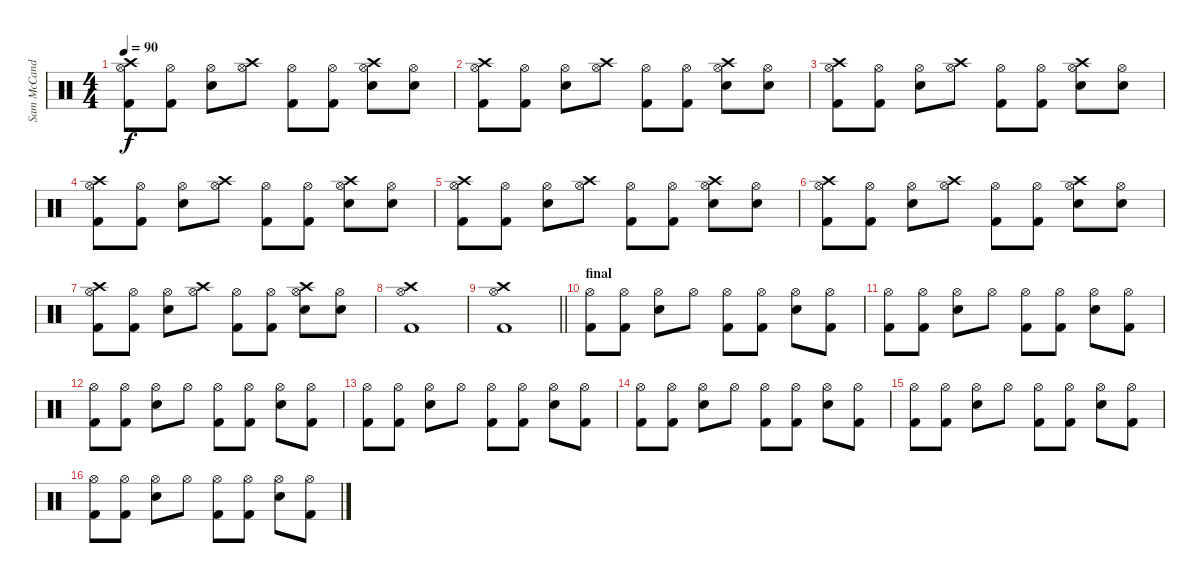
\track ("Sam McCandless" "Sam McCand") {instrument percussion}
\staff {score}
\articulation defaults
\ts (4 4)
\tempo 90
\clef neutral
\ks c
("Crash high (hit)" "Hi-Hat (open)" "Kick (hit) 2").8{dy f} ("Hi-Hat (open)" "Kick (hit) 2").8 ("Hi-Hat (open)" "Electric Snare (hit)").8 ("Crash high (hit)" "Hi-Hat (open)").8 ("Hi-Hat (open)" "Kick (hit) 2").8 ("Hi-Hat (open)" "Kick (hit) 2").8 ("Crash high (hit)" "Hi-Hat (open)" "Electric Snare (hit)").8 ("Hi-Hat (open)" "Electric Snare (hit)").8 |
("Crash high (hit)" "Hi-Hat (open)" "Kick (hit) 2").8 ("Hi-Hat (open)" "Kick (hit) 2").8 ("Hi-Hat (open)" "Electric Snare (hit)").8 ("Crash high (hit)" "Hi-Hat (open)").8 ("Hi-Hat (open)" "Kick (hit) 2").8 ("Hi-Hat (open)" "Kick (hit) 2").8 ("Crash high (hit)" "Hi-Hat (open)" "Electric Snare (hit)").8 ("Hi-Hat (open)" "Electric Snare (hit)").8 |
("Crash high (hit)" "Hi-Hat (open)" "Kick (hit) 2").8 ("Hi-Hat (open)" "Kick (hit) 2").8 ("Hi-Hat (open)" "Electric Snare (hit)").8 ("Crash high (hit)" "Hi-Hat (open)").8 ("Hi-Hat (open)" "Kick (hit) 2").8 ("Hi-Hat (open)" "Kick (hit) 2").8 ("Crash high (hit)" "Hi-Hat (open)" "Electric Snare (hit)").8 ("Hi-Hat (open)" "Electric Snare (hit)").8 |
("Crash high (hit)" "Hi-Hat (open)" "Kick (hit) 2").8 ("Hi-Hat (open)" "Kick (hit) 2").8 ("Hi-Hat (open)" "Electric Snare (hit)").8 ("Crash high (hit)" "Hi-Hat (open)").8 ("Hi-Hat (open)" "Kick (hit) 2").8 ("Hi-Hat (open)" "Kick (hit) 2").8 ("Crash high (hit)" "Hi-Hat (open)" "Electric Snare (hit)").8 ("Hi-Hat (open)" "Electric Snare (hit)").8 |
("Crash high (hit)" "Hi-Hat (open)" "Kick (hit) 2").8 ("Hi-Hat (open)" "Kick (hit) 2").8 ("Hi-Hat (open)" "Electric Snare (hit)").8 ("Crash high (hit)" "Hi-Hat (open)").8 ("Hi-Hat (open)" "Kick (hit) 2").8 ("Hi-Hat (open)" "Kick (hit) 2").8 ("Crash high (hit)" "Hi-Hat (open)" "Electric Snare (hit)").8 ("Hi-Hat (open)" "Electric Snare (hit)").8 |
("Crash high (hit)" "Hi-Hat (open)" "Kick (hit) 2").8 ("Hi-Hat (open)" "Kick (hit) 2").8 ("Hi-Hat (open)" "Electric Snare (hit)").8 ("Crash high (hit)" "Hi-Hat (open)").8 ("Hi-Hat (open)" "Kick (hit) 2").8 ("Hi-Hat (open)" "Kick (hit) 2").8 ("Crash high (hit)" "Hi-Hat (open)" "Electric Snare (hit)").8 ("Hi-Hat (open)" "Electric Snare (hit)").8 |
("Crash high (hit)" "Hi-Hat (open)" "Kick (hit) 2").8 ("Hi-Hat (open)" "Kick (hit) 2").8 ("Hi-Hat (open)" "Electric Snare (hit)").8 ("Crash high (hit)" "Hi-Hat (open)").8 ("Hi-Hat (open)" "Kick (hit) 2").8 ("Hi-Hat (open)" "Kick (hit) 2").8 ("Crash high (hit)" "Hi-Hat (open)" "Electric Snare (hit)").8 ("Hi-Hat (open)" "Electric Snare (hit)").8 |
("Crash high (hit)" "Hi-Hat (open)" "Kick (hit) 2").1 |
\barLineRight lightlight
("Crash high (hit)" "Hi-Hat (open)" "Kick (hit) 2").1 |
\section ("" "final")
("Hi-Hat (open)" "Kick (hit) 2").8 ("Hi-Hat (open)" "Kick (hit) 2").8 ("Hi-Hat (open)" "Electric Snare (hit)").8 "Hi-Hat (open)".8 ("Hi-Hat (open)" "Kick (hit) 2").8 ("Hi-Hat (open)" "Kick (hit) 2").8 ("Hi-Hat (open)" "Electric Snare (hit)").8 ("Hi-Hat (open)" "Kick (hit) 2").8 |
("Hi-Hat (open)" "Kick (hit) 2").8 ("Hi-Hat (open)" "Kick (hit) 2").8 ("Hi-Hat (open)" "Electric Snare (hit)").8 "Hi-Hat (open)".8 ("Hi-Hat (open)" "Kick (hit) 2").8 ("Hi-Hat (open)" "Kick (hit) 2").8 ("Hi-Hat (open)" "Electric Snare (hit)").8 ("Hi-Hat (open)" "Kick (hit) 2").8 |
("Hi-Hat (open)" "Kick (hit) 2").8 ("Hi-Hat (open)" "Kick (hit) 2").8 ("Hi-Hat (open)" "Electric Snare (hit)").8 "Hi-Hat (open)".8 ("Hi-Hat (open)" "Kick (hit) 2").8 ("Hi-Hat (open)" "Kick (hit) 2").8 ("Hi-Hat (open)" "Electric Snare (hit)").8 ("Hi-Hat (open)" "Kick (hit) 2").8 |
("Hi-Hat (open)" "Kick (hit) 2").8 ("Hi-Hat (open)" "Kick (hit) 2").8 ("Hi-Hat (open)" "Electric Snare (hit)").8 "Hi-Hat (open)".8 ("Hi-Hat (open)" "Kick (hit) 2").8 ("Hi-Hat (open)" "Kick (hit) 2").8 ("Hi-Hat (open)" "Electric Snare (hit)").8 ("Hi-Hat (open)" "Kick (hit) 2").8 |
("Hi-Hat (open)" "Kick (hit) 2").8 ("Hi-Hat (open)" "Kick (hit) 2").8 ("Hi-Hat (open)" "Electric Snare (hit)").8 "Hi-Hat (open)".8 ("Hi-Hat (open)" "Kick (hit) 2").8 ("Hi-Hat (open)" "Kick (hit) 2").8 ("Hi-Hat (open)" "Electric Snare (hit)").8 ("Hi-Hat (open)" "Kick (hit) 2").8 |
("Hi-Hat (open)" "Kick (hit) 2").8 ("Hi-Hat (open)" "Kick (hit) 2").8 ("Hi-Hat (open)" "Electric Snare (hit)").8 "Hi-Hat (open)".8 ("Hi-Hat (open)" "Kick (hit) 2").8 ("Hi-Hat (open)" "Kick (hit) 2").8 ("Hi-Hat (open)" "Electric Snare (hit)").8 ("Hi-Hat (open)" "Kick (hit) 2").8 |
("Hi-Hat (open)" "Kick (hit) 2").8 ("Hi-Hat (open)" "Kick (hit) 2").8 ("Hi-Hat (open)" "Electric Snare (hit)").8 "Hi-Hat (open)".8 ("Hi-Hat (open)" "Kick (hit) 2").8 ("Hi-Hat (open)" "Kick (hit) 2").8 ("Hi-Hat (open)" "Electric Snare (hit)").8 ("Hi-Hat (open)" "Kick (hit) 2").8
